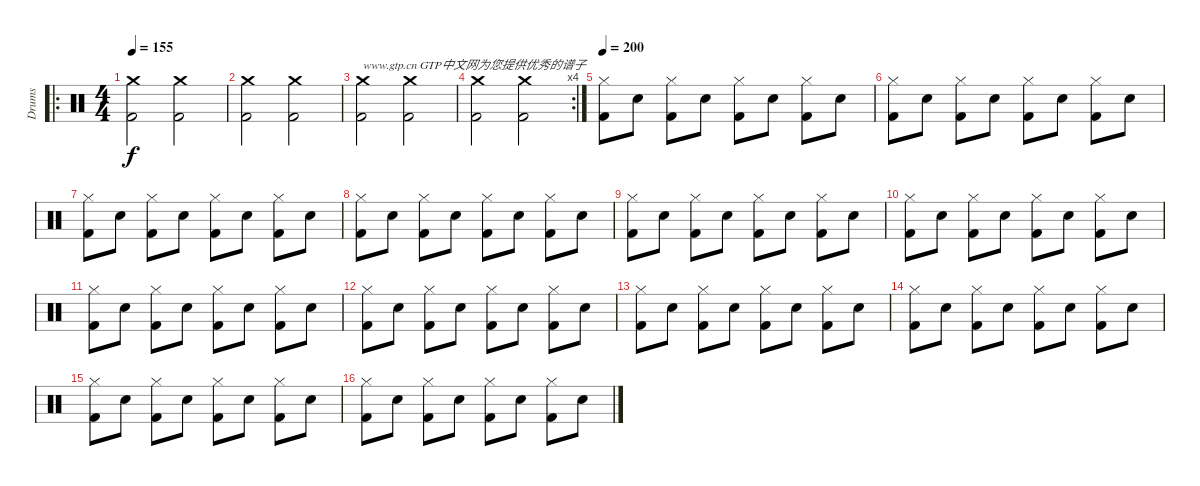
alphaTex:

\track ("Drums" "Drums") {instrument percussion}
\staff {score}
\articulation defaults
\ro
\ts (4 4)
\tempo 155
\clef neutral
\ks c
("Kick (hit) 2" "Crash medium (hit)").2{dy f} ("Kick (hit) 2" "Crash medium (hit)").2 |
("Kick (hit) 2" "Crash medium (hit)").2 ("Kick (hit) 2" "Crash medium (hit)").2 |
("Kick (hit) 2" "Crash medium (hit)").2{txt "www.gtp.cn GTP中文网为您提供优秀的谱子"} ("Kick (hit) 2" "Crash medium (hit)").2 |
\rc 4
("Kick (hit) 2" "Crash medium (hit)").2 ("Kick (hit) 2" "Crash medium (hit)").2 |
\tempo 200
("Kick (hit) 2" "Hi-Hat (closed)").8 "Snare (hit) 2".8 ("Kick (hit) 2" "Hi-Hat (closed)").8 "Snare (hit) 2".8 ("Kick (hit) 2" "Hi-Hat (closed)").8 "Snare (hit) 2".8 ("Kick (hit) 2" "Hi-Hat (closed)").8 "Snare (hit) 2".8 |
("Kick (hit) 2" "Hi-Hat (closed)").8 "Snare (hit) 2".8 ("Kick (hit) 2" "Hi-Hat (closed)").8 "Snare (hit) 2".8 ("Kick (hit) 2" "Hi-Hat (closed)").8 "Snare (hit) 2".8 ("Kick (hit) 2" "Hi-Hat (closed)").8 "Snare (hit) 2".8 |
("Kick (hit) 2" "Hi-Hat (closed)").8 "Snare (hit) 2".8 ("Kick (hit) 2" "Hi-Hat (closed)").8 "Snare (hit) 2".8 ("Kick (hit) 2" "Hi-Hat (closed)").8 "Snare (hit) 2".8 ("Kick (hit) 2" "Hi-Hat (closed)").8 "Snare (hit) 2".8 |
("Kick (hit) 2" "Hi-Hat (closed)").8 "Snare (hit) 2".8 ("Kick (hit) 2" "Hi-Hat (closed)").8 "Snare (hit) 2".8 ("Kick (hit) 2" "Hi-Hat (closed)").8 "Snare (hit) 2".8 ("Kick (hit) 2" "Hi-Hat (closed)").8 "Snare (hit) 2".8 |
("Kick (hit) 2" "Hi-Hat (closed)").8 "Snare (hit) 2".8 ("Kick (hit) 2" "Hi-Hat (closed)").8 "Snare (hit) 2".8 ("Kick (hit) 2" "Hi-Hat (closed)").8 "Snare (hit) 2".8 ("Kick (hit) 2" "Hi-Hat (closed)").8 "Snare (hit) 2".8 |
("Kick (hit) 2" "Hi-Hat (closed)").8 "Snare (hit) 2".8 ("Kick (hit) 2" "Hi-Hat (closed)").8 "Snare (hit) 2".8 ("Kick (hit) 2" "Hi-Hat (closed)").8 "Snare (hit) 2".8 ("Kick (hit) 2" "Hi-Hat (closed)").8 "Snare (hit) 2".8 |
("Kick (hit) 2" "Hi-Hat (closed)").8 "Snare (hit) 2".8 ("Kick (hit) 2" "Hi-Hat (closed)").8 "Snare (hit) 2".8 ("Kick (hit) 2" "Hi-Hat (closed)").8 "Snare (hit) 2".8 ("Kick (hit) 2" "Hi-Hat (closed)").8 "Snare (hit) 2".8 |
("Kick (hit) 2" "Hi-Hat (closed)").8 "Snare (hit) 2".8 ("Kick (hit) 2" "Hi-Hat (closed)").8 "Snare (hit) 2".8 ("Kick (hit) 2" "Hi-Hat (closed)").8 "Snare (hit) 2".8 ("Kick (hit) 2" "Hi-Hat (closed)").8 "Snare (hit) 2".8 |
("Kick (hit) 2" "Hi-Hat (closed)").8 "Snare (hit) 2".8 ("Kick (hit) 2" "Hi-Hat (closed)").8 "Snare (hit) 2".8 ("Kick (hit) 2" "Hi-Hat (closed)").8 "Snare (hit) 2".8 ("Kick (hit) 2" "Hi-Hat (closed)").8 "Snare (hit) 2".8 |
("Kick (hit) 2" "Hi-Hat (closed)").8 "Snare (hit) 2".8 ("Kick (hit) 2" "Hi-Hat (closed)").8 "Snare (hit) 2".8 ("Kick (hit) 2" "Hi-Hat (closed)").8 "Snare (hit) 2".8 ("Kick (hit) 2" "Hi-Hat (closed)").8 "Snare (hit) 2".8 |
("Kick (hit) 2" "Hi-Hat (closed)").8 "Snare (hit) 2".8 ("Kick (hit) 2" "Hi-Hat (closed)").8 "Snare (hit) 2".8 ("Kick (hit) 2" "Hi-Hat (closed)").8 "Snare (hit) 2".8 ("Kick (hit) 2" "Hi-Hat (closed)").8 "Snare (hit) 2".8 |
("Kick (hit) 2" "Hi-Hat (closed)").8 "Snare (hit) 2".8 ("Kick (hit) 2" "Hi-Hat (closed)").8 "Snare (hit) 2".8 ("Kick (hit) 2" "Hi-Hat (closed)").8 "Snare (hit) 2".8 ("Kick (hit) 2" "Hi-Hat (closed)").8 "Snare (hit) 2".8
